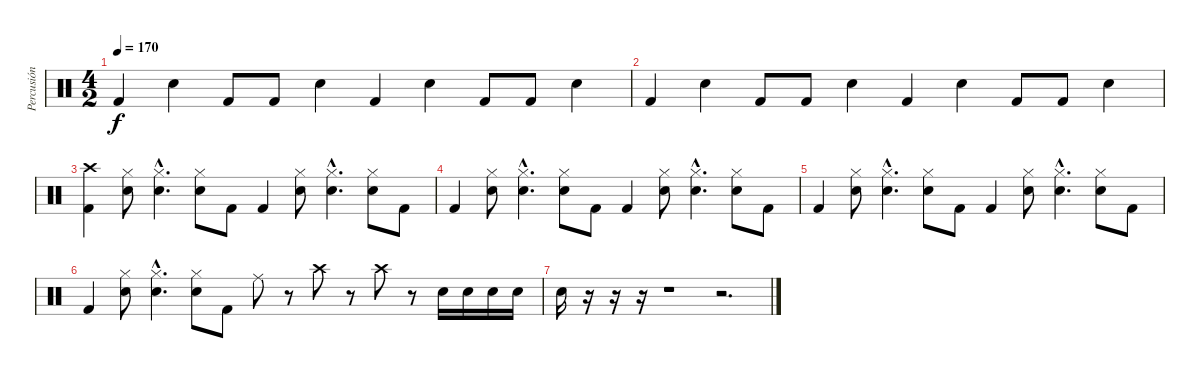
\track ("Percusión" "Percusión") {instrument percussion}
\staff {score}
\articulation defaults
\ts (4 2)
\tempo 170
\clef neutral
\ks c "Kick (hit) 2".4{dy f} "Snare (hit) 2".4 "Kick (hit) 2".8 "Kick (hit) 2".8 "Snare (hit) 2".4 "Kick (hit) 2".4 "Snare (hit) 2".4 "Kick (hit) 2".8 "Kick (hit) 2".8 "Snare (hit) 2".4
|
"Kick (hit) 2".4 "Snare (hit) 2".4 "Kick (hit) 2".8 "Kick (hit) 2".8 "Snare (hit) 2".4 "Kick (hit) 2".4 "Snare (hit) 2".4 "Kick (hit) 2".8 "Kick (hit) 2".8 "Snare (hit) 2".4 |
("Crash high (hit)" "Kick (hit) 2").4 ("Hi-Hat (closed)" "Snare (hit) 2").8 ("Hi-Hat (closed)"{hac} "Snare (hit) 2"{hac}).4{d} ("Hi-Hat (closed)" "Snare (hit) 2").8 "Kick (hit) 2".8 "Kick (hit) 2".4 ("Hi-Hat (closed)" "Snare (hit) 2").8 ("Hi-Hat (closed)"{hac} "Snare (hit) 2"{hac}).4{d} ("Hi-Hat (closed)" "Snare (hit) 2").8 "Kick (hit) 2".8 |
"Kick (hit) 2".4 ("Hi-Hat (closed)" "Snare (hit) 2").8 ("Hi-Hat (closed)"{hac} "Snare (hit) 2"{hac}).4{d} ("Hi-Hat (closed)" "Snare (hit) 2").8 "Kick (hit) 2".8 "Kick (hit) 2".4 ("Hi-Hat (closed)" "Snare (hit) 2").8 ("Hi-Hat (closed)"{hac} "Snare (hit) 2"{hac}).4{d} ("Hi-Hat (closed)" "Snare (hit) 2").8 "Kick (hit) 2".8 |
"Kick (hit) 2".4 ("Hi-Hat (closed)" "Snare (hit) 2").8 ("Hi-Hat (closed)"{hac} "Snare (hit) 2"{hac}).4{d} ("Hi-Hat (closed)" "Snare (hit) 2").8 "Kick (hit) 2".8 "Kick (hit) 2".4 ("Hi-Hat (closed)" "Snare (hit) 2").8 ("Hi-Hat (closed)"{hac} "Snare (hit) 2"{hac}).4{d} ("Hi-Hat (closed)" "Snare (hit) 2").8 "Kick (hit) 2".8 |
"Kick (hit) 2".4 ("Hi-Hat (closed)" "Snare (hit) 2").8 ("Hi-Hat (closed)"{hac} "Snare (hit) 2"{hac}).4{d} ("Hi-Hat (closed)" "Snare (hit) 2").8 "Kick (hit) 2".8 "Ride (middle)".8 r.8 "Crash high (hit)".8 r.8 "Crash high (hit)".8 r.8 "Snare (hit) 2".16 "Snare (hit) 2".16 "Snare (hit) 2".16 "Snare (hit) 2".16 |
"Snare (hit) 2".16 r.16 r.16 r.16 r.1 r.2{d}
